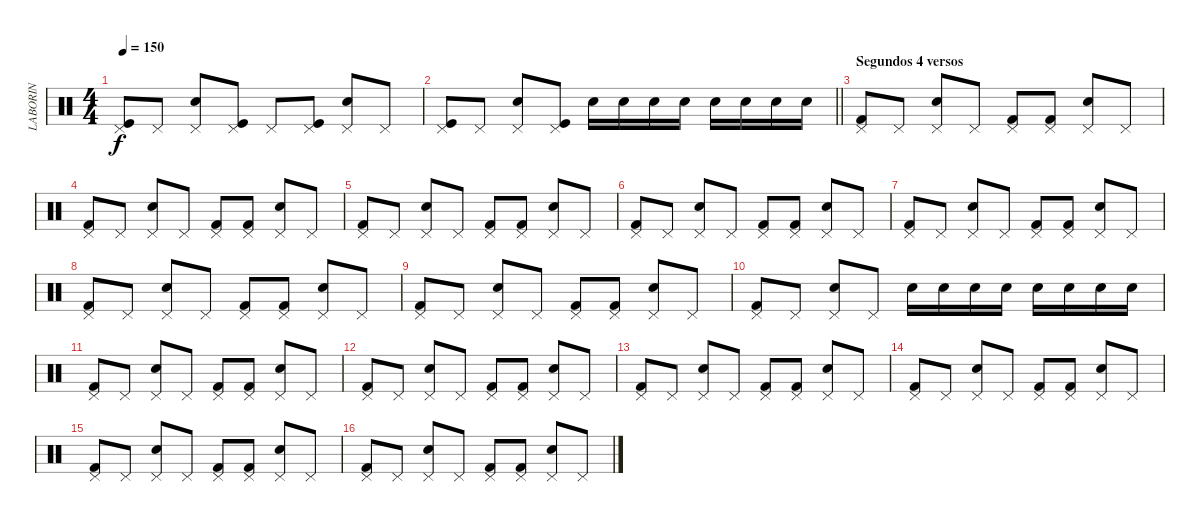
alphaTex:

\track ("LABORIN" "LABORIN") {instrument percussion}
\staff {score}
\articulation defaults
\ts (4 4)
\tempo 150
\clef neutral
\ks c
("Kick (hit)" "Pedal Hi-Hat (hit)").8{dy f} "Pedal Hi-Hat (hit)".8 ("Pedal Hi-Hat (hit)" "Snare (hit) 2").8 ("Kick (hit)" "Pedal Hi-Hat (hit)").8 "Pedal Hi-Hat (hit)".8 ("Kick (hit)" "Pedal Hi-Hat (hit)").8 ("Pedal Hi-Hat (hit)" "Snare (hit) 2").8 "Pedal Hi-Hat (hit)".8 |
\barLineRight lightlight
("Kick (hit)" "Pedal Hi-Hat (hit)").8 "Pedal Hi-Hat (hit)".8 ("Pedal Hi-Hat (hit)" "Snare (hit) 2").8 ("Kick (hit)" "Pedal Hi-Hat (hit)").8 "Snare (hit) 2".16 "Snare (hit) 2".16 "Snare (hit) 2".16 "Snare (hit) 2".16 "Snare (hit) 2".16 "Snare (hit) 2".16 "Snare (hit) 2".16 "Snare (hit) 2".16 |
\section ("" "Segundos 4 versos")
("Kick (hit) 2" "Pedal Hi-Hat (hit)").8 "Pedal Hi-Hat (hit)".8 ("Snare (hit) 2" "Pedal Hi-Hat (hit)").8 "Pedal Hi-Hat (hit)".8 ("Kick (hit) 2" "Pedal Hi-Hat (hit)").8 ("Kick (hit) 2" "Pedal Hi-Hat (hit)").8 ("Snare (hit) 2" "Pedal Hi-Hat (hit)").8 "Pedal Hi-Hat (hit)".8 |
("Kick (hit) 2" "Pedal Hi-Hat (hit)").8 "Pedal Hi-Hat (hit)".8 ("Snare (hit) 2" "Pedal Hi-Hat (hit)").8 "Pedal Hi-Hat (hit)".8 ("Kick (hit) 2" "Pedal Hi-Hat (hit)").8 ("Kick (hit) 2" "Pedal Hi-Hat (hit)").8 ("Snare (hit) 2" "Pedal Hi-Hat (hit)").8 "Pedal Hi-Hat (hit)".8 |
("Kick (hit) 2" "Pedal Hi-Hat (hit)").8 "Pedal Hi-Hat (hit)".8 ("Snare (hit) 2" "Pedal Hi-Hat (hit)").8 "Pedal Hi-Hat (hit)".8 ("Kick (hit) 2" "Pedal Hi-Hat (hit)").8 ("Kick (hit) 2" "Pedal Hi-Hat (hit)").8 ("Snare (hit) 2" "Pedal Hi-Hat (hit)").8 "Pedal Hi-Hat (hit)".8 |
("Kick (hit) 2" "Pedal Hi-Hat (hit)").8 "Pedal Hi-Hat (hit)".8 ("Snare (hit) 2" "Pedal Hi-Hat (hit)").8 "Pedal Hi-Hat (hit)".8 ("Kick (hit) 2" "Pedal Hi-Hat (hit)").8 ("Kick (hit) 2" "Pedal Hi-Hat (hit)").8 ("Snare (hit) 2" "Pedal Hi-Hat (hit)").8 "Pedal Hi-Hat (hit)".8 |
("Kick (hit) 2" "Pedal Hi-Hat (hit)").8 "Pedal Hi-Hat (hit)".8 ("Snare (hit) 2" "Pedal Hi-Hat (hit)").8 "Pedal Hi-Hat (hit)".8 ("Kick (hit) 2" "Pedal Hi-Hat (hit)").8 ("Kick (hit) 2" "Pedal Hi-Hat (hit)").8 ("Snare (hit) 2" "Pedal Hi-Hat (hit)").8 "Pedal Hi-Hat (hit)".8 |
("Kick (hit) 2" "Pedal Hi-Hat (hit)").8 "Pedal Hi-Hat (hit)".8 ("Snare (hit) 2" "Pedal Hi-Hat (hit)").8 "Pedal Hi-Hat (hit)".8 ("Kick (hit) 2" "Pedal Hi-Hat (hit)").8 ("Kick (hit) 2" "Pedal Hi-Hat (hit)").8 ("Snare (hit) 2" "Pedal Hi-Hat (hit)").8 "Pedal Hi-Hat (hit)".8 |
("Kick (hit) 2" "Pedal Hi-Hat (hit)").8 "Pedal Hi-Hat (hit)".8 ("Snare (hit) 2" "Pedal Hi-Hat (hit)").8 "Pedal Hi-Hat (hit)".8 ("Kick (hit) 2" "Pedal Hi-Hat (hit)").8 ("Kick (hit) 2" "Pedal Hi-Hat (hit)").8 ("Snare (hit) 2" "Pedal Hi-Hat (hit)").8 "Pedal Hi-Hat (hit)".8 |
("Kick (hit) 2" "Pedal Hi-Hat (hit)").8 "Pedal Hi-Hat (hit)".8 ("Snare (hit) 2" "Pedal Hi-Hat (hit)").8 "Pedal Hi-Hat (hit)".8 "Snare (hit) 2".16 "Snare (hit) 2".16 "Snare (hit) 2".16 "Snare (hit) 2".16 "Snare (hit) 2".16 "Snare (hit) 2".16 "Snare (hit) 2".16 "Snare (hit) 2".16 |
("Kick (hit) 2" "Pedal Hi-Hat (hit)").8 "Pedal Hi-Hat (hit)".8 ("Snare (hit) 2" "Pedal Hi-Hat (hit)").8 "Pedal Hi-Hat (hit)".8 ("Kick (hit) 2" "Pedal Hi-Hat (hit)").8 ("Kick (hit) 2" "Pedal Hi-Hat (hit)").8 ("Snare (hit) 2" "Pedal Hi-Hat (hit)").8 "Pedal Hi-Hat (hit)".8 |
("Kick (hit) 2" "Pedal Hi-Hat (hit)").8 "Pedal Hi-Hat (hit)".8 ("Snare (hit) 2" "Pedal Hi-Hat (hit)").8 "Pedal Hi-Hat (hit)".8 ("Kick (hit) 2" "Pedal Hi-Hat (hit)").8 ("Kick (hit) 2" "Pedal Hi-Hat (hit)").8 ("Snare (hit) 2" "Pedal Hi-Hat (hit)").8 "Pedal Hi-Hat (hit)".8 |
("Kick (hit) 2" "Pedal Hi-Hat (hit)").8 "Pedal Hi-Hat (hit)".8 ("Snare (hit) 2" "Pedal Hi-Hat (hit)").8 "Pedal Hi-Hat (hit)".8 ("Kick (hit) 2" "Pedal Hi-Hat (hit)").8 ("Kick (hit) 2" "Pedal Hi-Hat (hit)").8 ("Snare (hit) 2" "Pedal Hi-Hat (hit)").8 "Pedal Hi-Hat (hit)".8 |
("Kick (hit) 2" "Pedal Hi-Hat (hit)").8 "Pedal Hi-Hat (hit)".8 ("Snare (hit) 2" "Pedal Hi-Hat (hit)").8 "Pedal Hi-Hat (hit)".8 ("Kick (hit) 2" "Pedal Hi-Hat (hit)").8 ("Kick (hit) 2" "Pedal Hi-Hat (hit)").8 ("Snare (hit) 2" "Pedal Hi-Hat (hit)").8 "Pedal Hi-Hat (hit)".8 |
("Kick (hit) 2" "Pedal Hi-Hat (hit)").8 "Pedal Hi-Hat (hit)".8 ("Snare (hit) 2" "Pedal Hi-Hat (hit)").8 "Pedal Hi-Hat (hit)".8 ("Kick (hit) 2" "Pedal Hi-Hat (hit)").8 ("Kick (hit) 2" "Pedal Hi-Hat (hit)").8 ("Snare (hit) 2" "Pedal Hi-Hat (hit)").8 "Pedal Hi-Hat (hit)".8 |
("Kick (hit) 2" "Pedal Hi-Hat (hit)").8 "Pedal Hi-Hat (hit)".8 ("Snare (hit) 2" "Pedal Hi-Hat (hit)").8 "Pedal Hi-Hat (hit)".8 ("Kick (hit) 2" "Pedal Hi-Hat (hit)").8 ("Kick (hit) 2" "Pedal Hi-Hat (hit)").8 ("Snare (hit) 2" "Pedal Hi-Hat (hit)").8 "Pedal Hi-Hat (hit)".8
